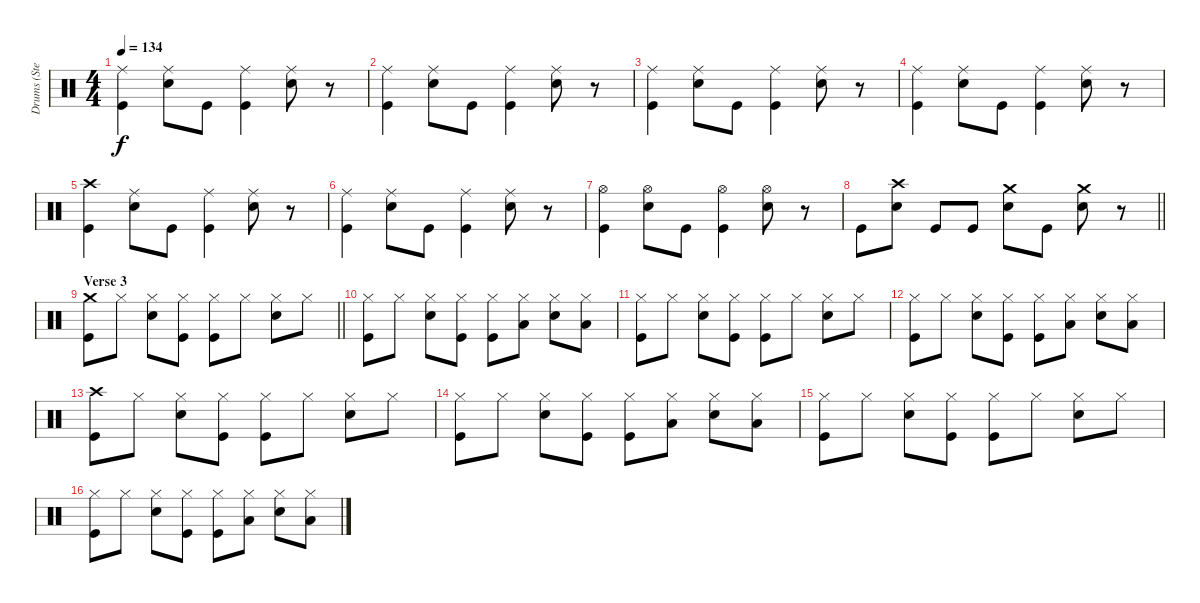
\track ("Drums (Steven Adler)" "Drums (Ste") {instrument percussion}
\staff {score}
\articulation defaults
\ts (4 4)
\tempo 134
\clef neutral
\ks c
("Ride (middle)" "Kick (hit)").4{dy f} ("Ride (middle)" "Snare (hit) 2").8 "Kick (hit)".8 ("Ride (middle)" "Kick (hit)").4 ("Ride (middle)" "Snare (hit) 2").8 r.8 |
("Ride (middle)" "Kick (hit)").4 ("Ride (middle)" "Snare (hit) 2").8 "Kick (hit)".8 ("Ride (middle)" "Kick (hit)").4 ("Ride (middle)" "Snare (hit) 2").8 r.8 |
("Ride (middle)" "Kick (hit)").4 ("Ride (middle)" "Snare (hit) 2").8 "Kick (hit)".8 ("Ride (middle)" "Kick (hit)").4 ("Ride (middle)" "Snare (hit) 2").8 r.8 |
("Ride (middle)" "Kick (hit)").4 ("Ride (middle)" "Snare (hit) 2").8 "Kick (hit)".8 ("Ride (middle)" "Kick (hit)").4 ("Ride (middle)" "Snare (hit) 2").8 r.8 |
("Crash high (hit)" "Kick (hit)").4 ("Ride (middle)" "Snare (hit) 2").8 "Kick (hit)".8 ("Ride (middle)" "Kick (hit)").4 ("Ride (middle)" "Snare (hit) 2").8 r.8 |
("Ride (middle)" "Kick (hit)").4 ("Ride (middle)" "Snare (hit) 2").8 "Kick (hit)".8 ("Ride (middle)" "Kick (hit)").4 ("Ride (middle)" "Snare (hit) 2").8 r.8 |
("Hi-Hat (open)" "Kick (hit)").4 ("Hi-Hat (open)" "Snare (hit) 2").8 "Kick (hit)".8 ("Hi-Hat (open)" "Kick (hit)").4 ("Hi-Hat (open)" "Snare (hit) 2").8 r.8 |
\barLineRight lightlight "Kick (hit)".8
("Crash high (hit)" "Snare (hit) 2").8 "Kick (hit)".8 "Kick (hit)".8 ("Crash medium (hit)" "Snare (hit) 2").8 "Kick (hit)".8 ("Crash medium (hit)" "Snare (hit) 2").8 r.8 |
\section ("" "Verse 3")
\barLineRight lightlight
("Crash medium (hit)" "Kick (hit)").8 "Hi-Hat (closed)".8 ("Hi-Hat (closed)" "Snare (hit) 2").8 ("Hi-Hat (closed)" "Kick (hit)").8 ("Hi-Hat (closed)" "Kick (hit)").8 "Hi-Hat (closed)".8 ("Hi-Hat (closed)" "Snare (hit) 2").8 "Hi-Hat (closed)".8 |
("Hi-Hat (closed)" "Kick (hit)").8 "Hi-Hat (closed)".8 ("Hi-Hat (closed)" "Snare (hit) 2").8 ("Hi-Hat (closed)" "Kick (hit)").8 ("Hi-Hat (closed)" "Kick (hit)").8 ("Hi-Hat (closed)" "Low Tom (hit)").8 ("Hi-Hat (closed)" "Snare (hit) 2").8 ("Hi-Hat (closed)" "Low Tom (hit)").8 |
("Hi-Hat (closed)" "Kick (hit)").8 "Hi-Hat (closed)".8 ("Hi-Hat (closed)" "Snare (hit) 2").8 ("Hi-Hat (closed)" "Kick (hit)").8 ("Hi-Hat (closed)" "Kick (hit)").8 "Hi-Hat (closed)".8 ("Hi-Hat (closed)" "Snare (hit) 2").8 "Hi-Hat (closed)".8 |
("Hi-Hat (closed)" "Kick (hit)").8 "Hi-Hat (closed)".8 ("Hi-Hat (closed)" "Snare (hit) 2").8 ("Hi-Hat (closed)" "Kick (hit)").8 ("Hi-Hat (closed)" "Kick (hit)").8 ("Hi-Hat (closed)" "Low Tom (hit)").8 ("Hi-Hat (closed)" "Snare (hit) 2").8 ("Hi-Hat (closed)" "Low Tom (hit)").8 |
("Crash high (hit)" "Kick (hit)").8 "Hi-Hat (closed)".8 ("Hi-Hat (closed)" "Snare (hit) 2").8 ("Hi-Hat (closed)" "Kick (hit)").8 ("Hi-Hat (closed)" "Kick (hit)").8 "Hi-Hat (closed)".8 ("Hi-Hat (closed)" "Snare (hit) 2").8 "Hi-Hat (closed)".8 |
("Hi-Hat (closed)" "Kick (hit)").8 "Hi-Hat (closed)".8 ("Hi-Hat (closed)" "Snare (hit) 2").8 ("Hi-Hat (closed)" "Kick (hit)").8 ("Hi-Hat (closed)" "Kick (hit)").8 ("Hi-Hat (closed)" "Low Tom (hit)").8 ("Hi-Hat (closed)" "Snare (hit) 2").8 ("Hi-Hat (closed)" "Low Tom (hit)").8 |
("Hi-Hat (closed)" "Kick (hit)").8 "Hi-Hat (closed)".8 ("Hi-Hat (closed)" "Snare (hit) 2").8 ("Hi-Hat (closed)" "Kick (hit)").8 ("Hi-Hat (closed)" "Kick (hit)").8 "Hi-Hat (closed)".8 ("Hi-Hat (closed)" "Snare (hit) 2").8 "Hi-Hat (closed)".8 |
("Hi-Hat (closed)" "Kick (hit)").8 "Hi-Hat (closed)".8 ("Hi-Hat (closed)" "Snare (hit) 2").8 ("Hi-Hat (closed)" "Kick (hit)").8 ("Hi-Hat (closed)" "Kick (hit)").8 ("Hi-Hat (closed)" "Low Tom (hit)").8 ("Hi-Hat (closed)" "Snare (hit) 2").8 ("Hi-Hat (closed)" "Low Tom (hit)").8
